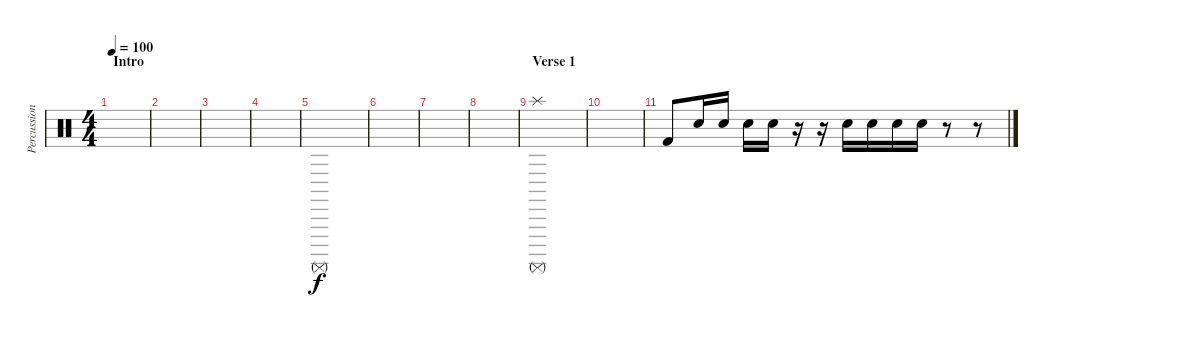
\track ("Percussion" "Percussion") {instrument percussion}
\staff {score}
\articulation defaults
\ts (4 4)
\section ("" "Intro")
\tempo 100
\clef neutral
\ks c
|
|
|
|
"Surdo (mute)".1 |
|
|
|
\section ("" "Verse 1")
("Splash (hit)" "Surdo (mute)").1 |
|
"Kick (hit) 2".8 "Electric Snare (hit)".16 "Electric Snare (hit)".16 "Electric Snare (hit)".16 "Electric Snare (hit)".16 r.16 r.16 "Electric Snare (hit)".16 "Electric Snare (hit)".16 "Electric Snare (hit)".16 "Electric Snare (hit)".16 r.8 r.8
